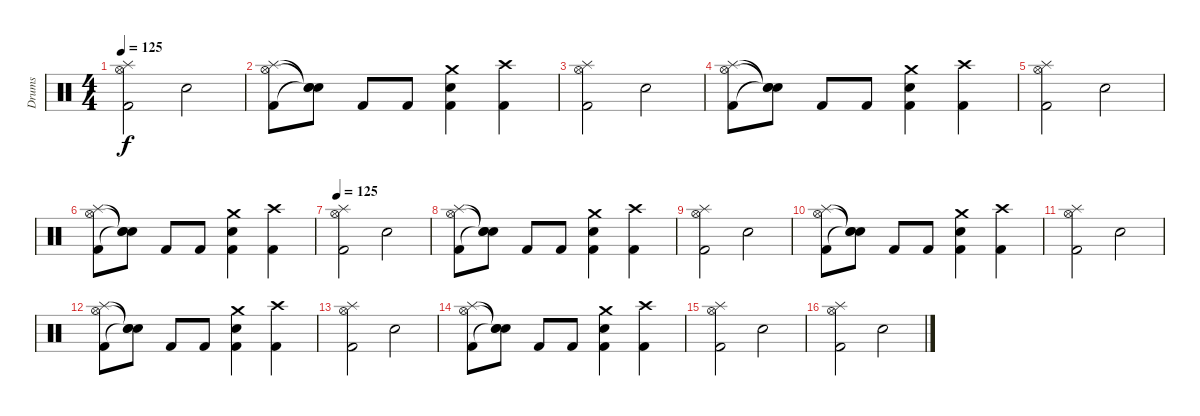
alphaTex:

\track ("Drums" "Drums") {instrument percussion}
\staff {score}
\articulation defaults
\ts (4 4)
\tempo 125
\clef neutral
\ks c
("Kick (hit) 2" "Splash (hit)" "Hi-Hat (open)").2{dy f} "Snare (hit) 2".2 |
("Kick (hit) 2" "Splash (hit)" "Hi-Hat (open)").8 ("Snare (hit)"{t} "Snare (hit)"{t} "Snare (hit) 2"{t}).8 "Kick (hit) 2".8 "Kick (hit) 2".8 ("Snare (hit) 2" "Crash medium (hit)" "Kick (hit) 2").4 ("Crash high (hit)" "Kick (hit) 2").4 |
("Kick (hit) 2" "Splash (hit)" "Hi-Hat (open)").2 "Snare (hit) 2".2 |
("Kick (hit) 2" "Splash (hit)" "Hi-Hat (open)").8 ("Snare (hit)"{t} "Snare (hit)"{t} "Snare (hit) 2"{t}).8 "Kick (hit) 2".8 "Kick (hit) 2".8 ("Snare (hit) 2" "Crash medium (hit)" "Kick (hit) 2").4 ("Crash high (hit)" "Kick (hit) 2").4 |
("Kick (hit) 2" "Splash (hit)" "Hi-Hat (open)").2 "Snare (hit) 2".2 |
("Kick (hit) 2" "Splash (hit)" "Hi-Hat (open)").8 ("Snare (hit)"{t} "Snare (hit)"{t} "Snare (hit) 2"{t}).8 "Kick (hit) 2".8 "Kick (hit) 2".8 ("Snare (hit) 2" "Crash medium (hit)" "Kick (hit) 2").4 ("Crash high (hit)" "Kick (hit) 2").4 |
\tempo 125
("Kick (hit) 2" "Splash (hit)" "Hi-Hat (open)").2 "Snare (hit) 2".2 |
("Kick (hit) 2" "Splash (hit)" "Hi-Hat (open)").8 ("Snare (hit)"{t} "Snare (hit)"{t} "Snare (hit) 2"{t}).8 "Kick (hit) 2".8 "Kick (hit) 2".8 ("Snare (hit) 2" "Crash medium (hit)" "Kick (hit) 2").4 ("Crash high (hit)" "Kick (hit) 2").4 |
("Kick (hit) 2" "Splash (hit)" "Hi-Hat (open)").2 "Snare (hit) 2".2 |
("Kick (hit) 2" "Splash (hit)" "Hi-Hat (open)").8 ("Snare (hit)"{t} "Snare (hit)"{t} "Snare (hit) 2"{t}).8 "Kick (hit) 2".8 "Kick (hit) 2".8 ("Snare (hit) 2" "Crash medium (hit)" "Kick (hit) 2").4 ("Crash high (hit)" "Kick (hit) 2").4 |
("Kick (hit) 2" "Splash (hit)" "Hi-Hat (open)").2 "Snare (hit) 2".2 |
("Kick (hit) 2" "Splash (hit)" "Hi-Hat (open)").8 ("Snare (hit)"{t} "Snare (hit)"{t} "Snare (hit) 2"{t}).8 "Kick (hit) 2".8 "Kick (hit) 2".8 ("Snare (hit) 2" "Crash medium (hit)" "Kick (hit) 2").4 ("Crash high (hit)" "Kick (hit) 2").4 |
("Kick (hit) 2" "Splash (hit)" "Hi-Hat (open)").2 "Snare (hit) 2".2 |
("Kick (hit) 2" "Splash (hit)" "Hi-Hat (open)").8 ("Snare (hit)"{t} "Snare (hit)"{t} "Snare (hit) 2"{t}).8 "Kick (hit) 2".8 "Kick (hit) 2".8 ("Snare (hit) 2" "Crash medium (hit)" "Kick (hit) 2").4 ("Crash high (hit)" "Kick (hit) 2").4 |
("Kick (hit) 2" "Splash (hit)" "Hi-Hat (open)").2 "Snare (hit) 2".2 |
("Kick (hit) 2" "Splash (hit)" "Hi-Hat (open)").2 "Snare (hit) 2".2
